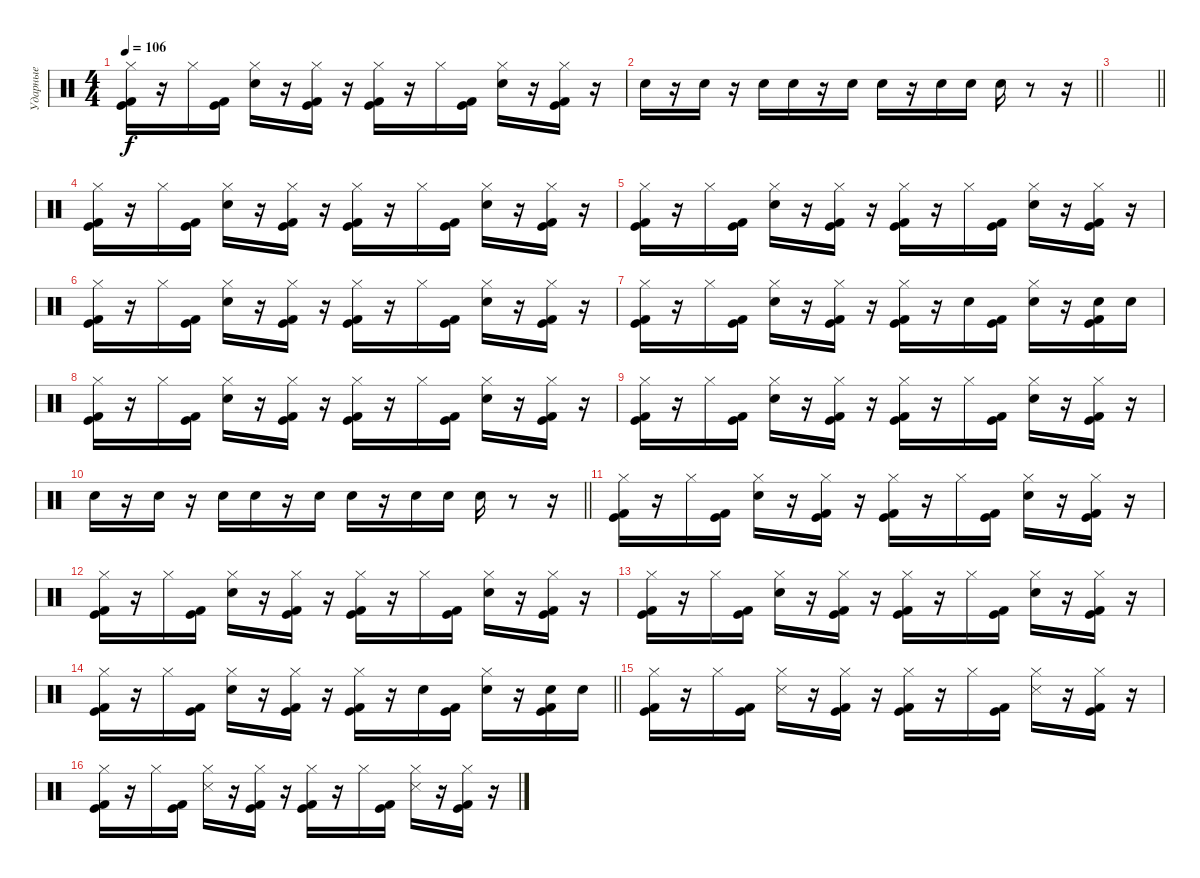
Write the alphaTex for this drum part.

\track ("Ударные" "Ударные") {instrument percussion}
\staff {score}
\articulation defaults
\ts (4 4)
\tempo 106
\clef neutral
\ks c
("Hi-Hat (closed)" "Kick (hit) 2" "Kick (hit)").16{dy f} r.16 "Hi-Hat (closed)".16 ("Kick (hit) 2" "Kick (hit)").16 ("Hi-Hat (closed)" "Electric Snare (hit)").16 r.16 ("Hi-Hat (closed)" "Kick (hit) 2" "Kick (hit)").16 r.16 ("Hi-Hat (closed)" "Kick (hit) 2" "Kick (hit)").16 r.16 "Hi-Hat (closed)".16 ("Kick (hit) 2" "Kick (hit)").16 ("Hi-Hat (closed)" "Electric Snare (hit)").16 r.16 ("Hi-Hat (closed)" "Kick (hit) 2" "Kick (hit)").16 r.16 |
\barLineRight lightlight "Electric Snare (hit)".16
r.16 "Electric Snare (hit)".16 r.16 "Electric Snare (hit)".16 "Electric Snare (hit)".16 r.16 "Electric Snare (hit)".16 "Electric Snare (hit)".16 r.16 "Electric Snare (hit)".16 "Electric Snare (hit)".16 "Electric Snare (hit)".16 r.8 r.16 |
\barLineRight lightlight
|
("Hi-Hat (closed)" "Kick (hit) 2" "Kick (hit)").16 r.16 "Hi-Hat (closed)".16 ("Kick (hit) 2" "Kick (hit)").16 ("Hi-Hat (closed)" "Electric Snare (hit)").16 r.16 ("Hi-Hat (closed)" "Kick (hit) 2" "Kick (hit)").16 r.16 ("Hi-Hat (closed)" "Kick (hit) 2" "Kick (hit)").16 r.16 "Hi-Hat (closed)".16 ("Kick (hit) 2" "Kick (hit)").16 ("Hi-Hat (closed)" "Electric Snare (hit)").16 r.16 ("Hi-Hat (closed)" "Kick (hit) 2" "Kick (hit)").16 r.16 |
("Hi-Hat (closed)" "Kick (hit) 2" "Kick (hit)").16 r.16 "Hi-Hat (closed)".16 ("Kick (hit) 2" "Kick (hit)").16 ("Hi-Hat (closed)" "Electric Snare (hit)").16 r.16 ("Hi-Hat (closed)" "Kick (hit) 2" "Kick (hit)").16 r.16 ("Hi-Hat (closed)" "Kick (hit) 2" "Kick (hit)").16 r.16 "Hi-Hat (closed)".16 ("Kick (hit) 2" "Kick (hit)").16 ("Hi-Hat (closed)" "Electric Snare (hit)").16 r.16 ("Hi-Hat (closed)" "Kick (hit) 2" "Kick (hit)").16 r.16 |
("Hi-Hat (closed)" "Kick (hit) 2" "Kick (hit)").16 r.16 "Hi-Hat (closed)".16 ("Kick (hit) 2" "Kick (hit)").16 ("Hi-Hat (closed)" "Electric Snare (hit)").16 r.16 ("Hi-Hat (closed)" "Kick (hit) 2" "Kick (hit)").16 r.16 ("Hi-Hat (closed)" "Kick (hit) 2" "Kick (hit)").16 r.16 "Hi-Hat (closed)".16 ("Kick (hit) 2" "Kick (hit)").16 ("Hi-Hat (closed)" "Electric Snare (hit)").16 r.16 ("Hi-Hat (closed)" "Kick (hit) 2" "Kick (hit)").16 r.16 |
("Hi-Hat (closed)" "Kick (hit) 2" "Kick (hit)").16 r.16 "Hi-Hat (closed)".16 ("Kick (hit) 2" "Kick (hit)").16 ("Hi-Hat (closed)" "Electric Snare (hit)").16 r.16 ("Hi-Hat (closed)" "Kick (hit) 2" "Kick (hit)").16 r.16 ("Hi-Hat (closed)" "Kick (hit) 2" "Kick (hit)").16 r.16 "Electric Snare (hit)".16 ("Kick (hit) 2" "Kick (hit)").16 ("Hi-Hat (closed)" "Electric Snare (hit)").16 r.16 ("Electric Snare (hit)" "Kick (hit) 2" "Kick (hit)").16 "Electric Snare (hit)".16 |
("Hi-Hat (closed)" "Kick (hit) 2" "Kick (hit)").16 r.16 "Hi-Hat (closed)".16 ("Kick (hit) 2" "Kick (hit)").16 ("Hi-Hat (closed)" "Electric Snare (hit)").16 r.16 ("Hi-Hat (closed)" "Kick (hit) 2" "Kick (hit)").16 r.16 ("Hi-Hat (closed)" "Kick (hit) 2" "Kick (hit)").16 r.16 "Hi-Hat (closed)".16 ("Kick (hit) 2" "Kick (hit)").16 ("Hi-Hat (closed)" "Electric Snare (hit)").16 r.16 ("Hi-Hat (closed)" "Kick (hit) 2" "Kick (hit)").16 r.16 |
("Hi-Hat (closed)" "Kick (hit) 2" "Kick (hit)").16 r.16 "Hi-Hat (closed)".16 ("Kick (hit) 2" "Kick (hit)").16 ("Hi-Hat (closed)" "Electric Snare (hit)").16 r.16 ("Hi-Hat (closed)" "Kick (hit) 2" "Kick (hit)").16 r.16 ("Hi-Hat (closed)" "Kick (hit) 2" "Kick (hit)").16 r.16 "Hi-Hat (closed)".16 ("Kick (hit) 2" "Kick (hit)").16 ("Hi-Hat (closed)" "Electric Snare (hit)").16 r.16 ("Hi-Hat (closed)" "Kick (hit) 2" "Kick (hit)").16 r.16 |
\barLineRight lightlight "Electric Snare (hit)".16
r.16 "Electric Snare (hit)".16 r.16 "Electric Snare (hit)".16 "Electric Snare (hit)".16 r.16 "Electric Snare (hit)".16 "Electric Snare (hit)".16 r.16 "Electric Snare (hit)".16 "Electric Snare (hit)".16 "Electric Snare (hit)".16 r.8 r.16 |
("Hi-Hat (closed)" "Kick (hit) 2" "Kick (hit)").16 r.16 "Hi-Hat (closed)".16 ("Kick (hit) 2" "Kick (hit)").16 ("Hi-Hat (closed)" "Electric Snare (hit)").16 r.16 ("Hi-Hat (closed)" "Kick (hit) 2" "Kick (hit)").16 r.16 ("Hi-Hat (closed)" "Kick (hit) 2" "Kick (hit)").16 r.16 "Hi-Hat (closed)".16 ("Kick (hit) 2" "Kick (hit)").16 ("Hi-Hat (closed)" "Electric Snare (hit)").16 r.16 ("Hi-Hat (closed)" "Kick (hit) 2" "Kick (hit)").16 r.16 |
("Hi-Hat (closed)" "Kick (hit) 2" "Kick (hit)").16 r.16 "Hi-Hat (closed)".16 ("Kick (hit) 2" "Kick (hit)").16 ("Hi-Hat (closed)" "Electric Snare (hit)").16 r.16 ("Hi-Hat (closed)" "Kick (hit) 2" "Kick (hit)").16 r.16 ("Hi-Hat (closed)" "Kick (hit) 2" "Kick (hit)").16 r.16 "Hi-Hat (closed)".16 ("Kick (hit) 2" "Kick (hit)").16 ("Hi-Hat (closed)" "Electric Snare (hit)").16 r.16 ("Hi-Hat (closed)" "Kick (hit) 2" "Kick (hit)").16 r.16 |
("Hi-Hat (closed)" "Kick (hit) 2" "Kick (hit)").16 r.16 "Hi-Hat (closed)".16 ("Kick (hit) 2" "Kick (hit)").16 ("Hi-Hat (closed)" "Electric Snare (hit)").16 r.16 ("Hi-Hat (closed)" "Kick (hit) 2" "Kick (hit)").16 r.16 ("Hi-Hat (closed)" "Kick (hit) 2" "Kick (hit)").16 r.16 "Hi-Hat (closed)".16 ("Kick (hit) 2" "Kick (hit)").16 ("Hi-Hat (closed)" "Electric Snare (hit)").16 r.16 ("Hi-Hat (closed)" "Kick (hit) 2" "Kick (hit)").16 r.16 |
\barLineRight lightlight
("Hi-Hat (closed)" "Kick (hit) 2" "Kick (hit)").16 r.16 "Hi-Hat (closed)".16 ("Kick (hit) 2" "Kick (hit)").16 ("Hi-Hat (closed)" "Electric Snare (hit)").16 r.16 ("Hi-Hat (closed)" "Kick (hit) 2" "Kick (hit)").16 r.16 ("Hi-Hat (closed)" "Kick (hit) 2" "Kick (hit)").16 r.16 "Electric Snare (hit)".16 ("Kick (hit) 2" "Kick (hit)").16 ("Hi-Hat (closed)" "Electric Snare (hit)").16 r.16 ("Electric Snare (hit)" "Kick (hit) 2" "Kick (hit)").16 "Electric Snare (hit)".16 |
("Hi-Hat (closed)" "Kick (hit) 2" "Kick (hit)").16 r.16 "Hi-Hat (closed)".16 ("Kick (hit) 2" "Kick (hit)").16 ("Hi-Hat (closed)" "Snare (side stick) 3").16 r.16 ("Hi-Hat (closed)" "Kick (hit) 2" "Kick (hit)").16 r.16 ("Hi-Hat (closed)" "Kick (hit) 2" "Kick (hit)").16 r.16 "Hi-Hat (closed)".16 ("Kick (hit) 2" "Kick (hit)").16 ("Hi-Hat (closed)" "Snare (side stick) 3").16 r.16 ("Hi-Hat (closed)" "Kick (hit) 2" "Kick (hit)").16 r.16 |
("Hi-Hat (closed)" "Kick (hit) 2" "Kick (hit)").16 r.16 "Hi-Hat (closed)".16 ("Kick (hit) 2" "Kick (hit)").16 ("Hi-Hat (closed)" "Snare (side stick) 3").16 r.16 ("Hi-Hat (closed)" "Kick (hit) 2" "Kick (hit)").16 r.16 ("Hi-Hat (closed)" "Kick (hit) 2" "Kick (hit)").16 r.16 "Hi-Hat (closed)".16 ("Kick (hit) 2" "Kick (hit)").16 ("Hi-Hat (closed)" "Snare (side stick) 3").16 r.16 ("Hi-Hat (closed)" "Kick (hit) 2" "Kick (hit)").16 r.16
